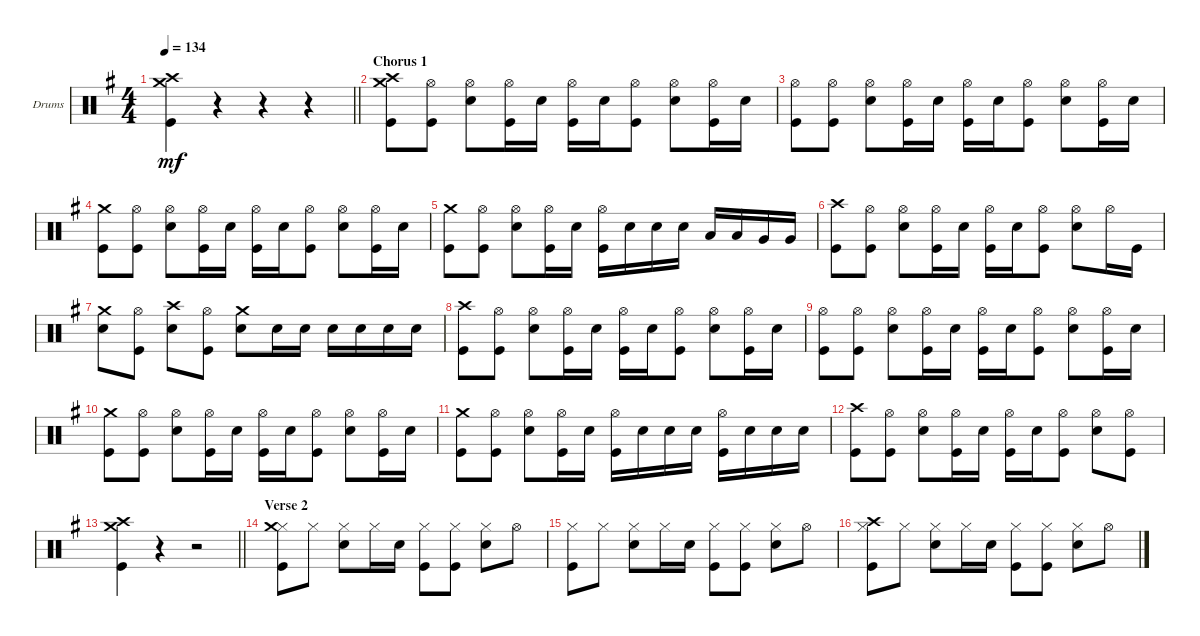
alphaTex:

\bracketExtendMode groupsimilarinstruments
\firstSystemTrackNameOrientation horizontal
\otherSystemsTrackNameOrientation horizontal
\track ("drums (Anton Zulganov)" "Drums") {instrument percussion}
\staff {score}
\articulation defaults
\ts (4 4)
\tempo 134
\clef neutral
\barLineRight lightlight
\ks eminor
("Crash high (hit)" "Kick (hit)" "Crash medium (hit)").4{dy mf} r.4 r.4 r.4 |
\section ("" "Chorus 1")
("Crash high (hit)" "Kick (hit)" "Crash medium (hit)").8 ("Hi-Hat (open)" "Kick (hit)").8 ("Hi-Hat (open)" "Snare (hit) 2").8 ("Hi-Hat (open)" "Kick (hit)").16 "Snare (hit) 2".16 ("Hi-Hat (open)" "Kick (hit)").16 "Snare (hit) 2".16 ("Hi-Hat (open)" "Kick (hit)").8 ("Hi-Hat (open)" "Snare (hit) 2").8 ("Hi-Hat (open)" "Kick (hit)").16 "Snare (hit) 2".16 |
("Hi-Hat (open)" "Kick (hit)").8 ("Hi-Hat (open)" "Kick (hit)").8 ("Hi-Hat (open)" "Snare (hit) 2").8 ("Hi-Hat (open)" "Kick (hit)").16 "Snare (hit) 2".16 ("Hi-Hat (open)" "Kick (hit)").16 "Snare (hit) 2".16 ("Hi-Hat (open)" "Kick (hit)").8 ("Hi-Hat (open)" "Snare (hit) 2").8 ("Hi-Hat (open)" "Kick (hit)").16 "Snare (hit) 2".16 |
("Crash medium (hit)" "Kick (hit)").8 ("Hi-Hat (open)" "Kick (hit)").8 ("Hi-Hat (open)" "Snare (hit) 2").8 ("Hi-Hat (open)" "Kick (hit)").16 "Snare (hit) 2".16 ("Hi-Hat (open)" "Kick (hit)").16 "Snare (hit) 2".16 ("Hi-Hat (open)" "Kick (hit)").8 ("Hi-Hat (open)" "Snare (hit) 2").8 ("Hi-Hat (open)" "Kick (hit)").16 "Snare (hit) 2".16 |
("Crash medium (hit)" "Kick (hit)").8 ("Hi-Hat (open)" "Kick (hit)").8 ("Hi-Hat (open)" "Snare (hit) 2").8 ("Hi-Hat (open)" "Kick (hit)").16 "Snare (hit) 2".16 ("Hi-Hat (open)" "Kick (hit)").16 "Snare (hit) 2".16 "Snare (hit) 2".16 "Snare (hit) 2".16 "Low Tom (hit)".16 "Low Tom (hit)".16 "Very Low Tom (hit)".16 "Very Low Tom (hit)".16 |
("Crash high (hit)" "Kick (hit)").8 ("Hi-Hat (open)" "Kick (hit)").8 ("Hi-Hat (open)" "Snare (hit) 2").8 ("Hi-Hat (open)" "Kick (hit)").16 "Snare (hit) 2".16 ("Hi-Hat (open)" "Kick (hit)").16 "Snare (hit) 2".16 ("Hi-Hat (open)" "Kick (hit)").8 ("Hi-Hat (open)" "Snare (hit) 2").8 "Hi-Hat (open)".16 "Kick (hit)".16 |
("Crash medium (hit)" "Snare (hit) 2").8 ("Hi-Hat (open)" "Kick (hit)").8 ("Snare (hit) 2" "Crash high (hit)").8 ("Hi-Hat (open)" "Kick (hit)").8 ("Crash medium (hit)" "Snare (hit) 2").8 "Snare (hit) 2".16 "Snare (hit) 2".16 "Snare (hit) 2".16 "Snare (hit) 2".16 "Snare (hit) 2".16 "Snare (hit) 2".16 |
("Crash high (hit)" "Kick (hit)").8 ("Hi-Hat (open)" "Kick (hit)").8 ("Hi-Hat (open)" "Snare (hit) 2").8 ("Hi-Hat (open)" "Kick (hit)").16 "Snare (hit) 2".16 ("Hi-Hat (open)" "Kick (hit)").16 "Snare (hit) 2".16 ("Hi-Hat (open)" "Kick (hit)").8 ("Hi-Hat (open)" "Snare (hit) 2").8 ("Hi-Hat (open)" "Kick (hit)").16 "Snare (hit) 2".16 |
("Hi-Hat (open)" "Kick (hit)").8 ("Hi-Hat (open)" "Kick (hit)").8 ("Hi-Hat (open)" "Snare (hit) 2").8 ("Hi-Hat (open)" "Kick (hit)").16 "Snare (hit) 2".16 ("Hi-Hat (open)" "Kick (hit)").16 "Snare (hit) 2".16 ("Hi-Hat (open)" "Kick (hit)").8 ("Hi-Hat (open)" "Snare (hit) 2").8 ("Hi-Hat (open)" "Kick (hit)").16 "Snare (hit) 2".16 |
("Crash medium (hit)" "Kick (hit)").8 ("Hi-Hat (open)" "Kick (hit)").8 ("Hi-Hat (open)" "Snare (hit) 2").8 ("Hi-Hat (open)" "Kick (hit)").16 "Snare (hit) 2".16 ("Hi-Hat (open)" "Kick (hit)").16 "Snare (hit) 2".16 ("Hi-Hat (open)" "Kick (hit)").8 ("Hi-Hat (open)" "Snare (hit) 2").8 ("Hi-Hat (open)" "Kick (hit)").16 "Snare (hit) 2".16 |
("Crash medium (hit)" "Kick (hit)").8 ("Hi-Hat (open)" "Kick (hit)").8 ("Hi-Hat (open)" "Snare (hit) 2").8 ("Hi-Hat (open)" "Kick (hit)").16 "Snare (hit) 2".16 ("Hi-Hat (open)" "Kick (hit)").16 "Snare (hit) 2".16 "Snare (hit) 2".16 "Snare (hit) 2".16 ("Kick (hit)" "Hi-Hat (open)").16 "Snare (hit) 2".16 "Snare (hit) 2".16 "Snare (hit) 2".16 |
("Crash high (hit)" "Kick (hit)").8 ("Hi-Hat (open)" "Kick (hit)").8 ("Hi-Hat (open)" "Snare (hit) 2").8 ("Hi-Hat (open)" "Kick (hit)").16 "Snare (hit) 2".16 ("Hi-Hat (open)" "Kick (hit)").16 "Snare (hit) 2".16 ("Hi-Hat (open)" "Kick (hit)").8 ("Hi-Hat (open)" "Snare (hit) 2").8 ("Hi-Hat (open)" "Kick (hit)").8 |
\barLineRight lightlight
("Crash medium (hit)" "Kick (hit)" "Crash high (hit)").4 r.4 r.2 |
\section ("" "Verse 2")
("Hi-Hat (closed)" "Kick (hit)" "Crash medium (hit)").8 "Hi-Hat (closed)".8 ("Hi-Hat (closed)" "Snare (hit) 2").8 "Hi-Hat (closed)".16 "Snare (hit) 2".16 ("Hi-Hat (closed)" "Kick (hit)").8 ("Hi-Hat (closed)" "Kick (hit)").8 ("Hi-Hat (closed)" "Snare (hit) 2").8 "Hi-Hat (open)".8 |
("Hi-Hat (closed)" "Kick (hit)").8 "Hi-Hat (closed)".8 ("Hi-Hat (closed)" "Snare (hit) 2").8 "Hi-Hat (closed)".16 "Snare (hit) 2".16 ("Hi-Hat (closed)" "Kick (hit)").8 ("Hi-Hat (closed)" "Kick (hit)").8 ("Hi-Hat (closed)" "Snare (hit) 2").8 "Hi-Hat (open)".8 |
("Hi-Hat (closed)" "Kick (hit)" "Crash high (hit)").8 "Hi-Hat (closed)".8 ("Hi-Hat (closed)" "Snare (hit) 2").8 "Hi-Hat (closed)".16 "Snare (hit) 2".16 ("Hi-Hat (closed)" "Kick (hit)").8 ("Hi-Hat (closed)" "Kick (hit)").8 ("Hi-Hat (closed)" "Snare (hit) 2").8 "Hi-Hat (open)".8
